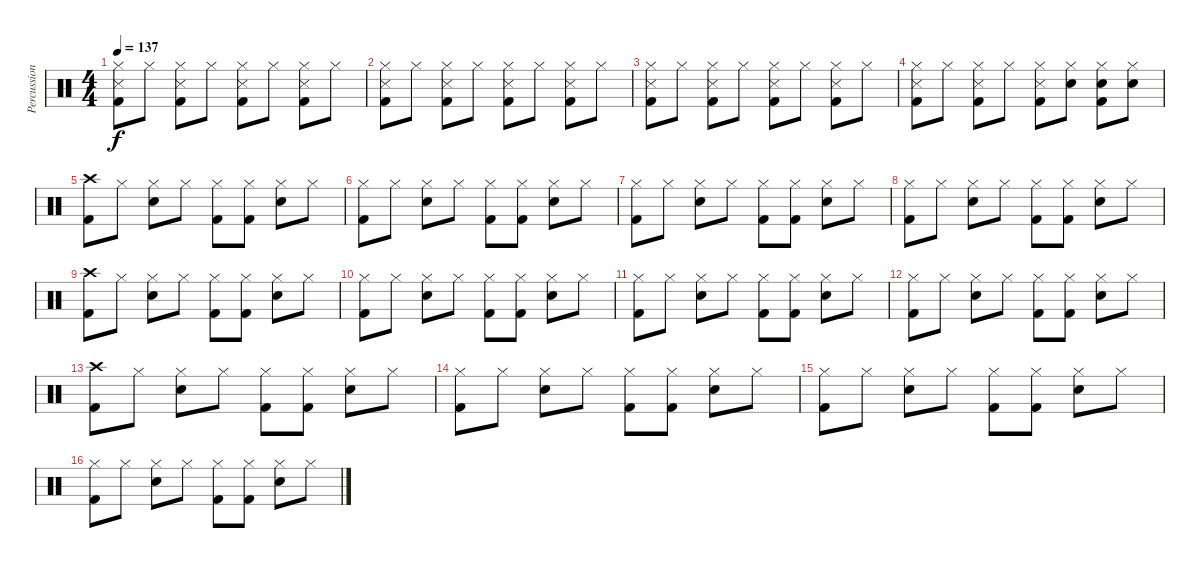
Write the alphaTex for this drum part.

\track ("Percussions" "Percussion") {instrument percussion}
\staff {score}
\articulation defaults
\ts (4 4)
\tempo 137
\clef neutral
\ks c
("Hi-Hat (closed)" "Snare (side stick) 3" "Kick (hit) 2").8{dy f} "Hi-Hat (closed)".8 ("Hi-Hat (closed)" "Snare (side stick) 3" "Kick (hit) 2").8 "Hi-Hat (closed)".8 ("Hi-Hat (closed)" "Snare (side stick) 3" "Kick (hit) 2").8 "Hi-Hat (closed)".8 ("Hi-Hat (closed)" "Snare (side stick) 3" "Kick (hit) 2").8 "Hi-Hat (closed)".8 |
("Hi-Hat (closed)" "Snare (side stick) 3" "Kick (hit) 2").8 "Hi-Hat (closed)".8 ("Hi-Hat (closed)" "Snare (side stick) 3" "Kick (hit) 2").8 "Hi-Hat (closed)".8 ("Hi-Hat (closed)" "Snare (side stick) 3" "Kick (hit) 2").8 "Hi-Hat (closed)".8 ("Hi-Hat (closed)" "Snare (side stick) 3" "Kick (hit) 2").8 "Hi-Hat (closed)".8 |
("Hi-Hat (closed)" "Snare (side stick) 3" "Kick (hit) 2").8 "Hi-Hat (closed)".8 ("Hi-Hat (closed)" "Snare (side stick) 3" "Kick (hit) 2").8 "Hi-Hat (closed)".8 ("Hi-Hat (closed)" "Snare (side stick) 3" "Kick (hit) 2").8 "Hi-Hat (closed)".8 ("Hi-Hat (closed)" "Snare (side stick) 3" "Kick (hit) 2").8 "Hi-Hat (closed)".8 |
("Hi-Hat (closed)" "Snare (side stick) 3" "Kick (hit) 2").8 "Hi-Hat (closed)".8 ("Hi-Hat (closed)" "Snare (side stick) 3" "Kick (hit) 2").8 "Hi-Hat (closed)".8 ("Hi-Hat (closed)" "Snare (side stick) 3" "Kick (hit) 2").8 ("Hi-Hat (closed)" "Snare (hit) 2").8 ("Hi-Hat (closed)" "Snare (hit) 2" "Kick (hit) 2").8 ("Hi-Hat (closed)" "Snare (hit) 2").8 |
("Crash high (hit)" "Kick (hit) 2").8 "Hi-Hat (closed)".8 ("Hi-Hat (closed)" "Snare (hit) 2").8 "Hi-Hat (closed)".8 ("Hi-Hat (closed)" "Kick (hit) 2").8 ("Hi-Hat (closed)" "Kick (hit) 2").8 ("Hi-Hat (closed)" "Snare (hit) 2").8 "Hi-Hat (closed)".8 |
("Hi-Hat (closed)" "Kick (hit) 2").8 "Hi-Hat (closed)".8 ("Hi-Hat (closed)" "Snare (hit) 2").8 "Hi-Hat (closed)".8 ("Hi-Hat (closed)" "Kick (hit) 2").8 ("Hi-Hat (closed)" "Kick (hit) 2").8 ("Hi-Hat (closed)" "Snare (hit) 2").8 "Hi-Hat (closed)".8 |
("Hi-Hat (closed)" "Kick (hit) 2").8 "Hi-Hat (closed)".8 ("Hi-Hat (closed)" "Snare (hit) 2").8 "Hi-Hat (closed)".8 ("Hi-Hat (closed)" "Kick (hit) 2").8 ("Hi-Hat (closed)" "Kick (hit) 2").8 ("Hi-Hat (closed)" "Snare (hit) 2").8 "Hi-Hat (closed)".8 |
("Hi-Hat (closed)" "Kick (hit) 2").8 "Hi-Hat (closed)".8 ("Hi-Hat (closed)" "Snare (hit) 2").8 "Hi-Hat (closed)".8 ("Hi-Hat (closed)" "Kick (hit) 2").8 ("Hi-Hat (closed)" "Kick (hit) 2").8 ("Hi-Hat (closed)" "Snare (hit) 2").8 "Hi-Hat (closed)".8 |
("Crash high (hit)" "Kick (hit) 2").8 "Hi-Hat (closed)".8 ("Hi-Hat (closed)" "Snare (hit) 2").8 "Hi-Hat (closed)".8 ("Hi-Hat (closed)" "Kick (hit) 2").8 ("Hi-Hat (closed)" "Kick (hit) 2").8 ("Hi-Hat (closed)" "Snare (hit) 2").8 "Hi-Hat (closed)".8 |
("Hi-Hat (closed)" "Kick (hit) 2").8 "Hi-Hat (closed)".8 ("Hi-Hat (closed)" "Snare (hit) 2").8 "Hi-Hat (closed)".8 ("Hi-Hat (closed)" "Kick (hit) 2").8 ("Hi-Hat (closed)" "Kick (hit) 2").8 ("Hi-Hat (closed)" "Snare (hit) 2").8 "Hi-Hat (closed)".8 |
("Hi-Hat (closed)" "Kick (hit) 2").8 "Hi-Hat (closed)".8 ("Hi-Hat (closed)" "Snare (hit) 2").8 "Hi-Hat (closed)".8 ("Hi-Hat (closed)" "Kick (hit) 2").8 ("Hi-Hat (closed)" "Kick (hit) 2").8 ("Hi-Hat (closed)" "Snare (hit) 2").8 "Hi-Hat (closed)".8 |
("Hi-Hat (closed)" "Kick (hit) 2").8 "Hi-Hat (closed)".8 ("Hi-Hat (closed)" "Snare (hit) 2").8 "Hi-Hat (closed)".8 ("Hi-Hat (closed)" "Kick (hit) 2").8 ("Hi-Hat (closed)" "Kick (hit) 2").8 ("Hi-Hat (closed)" "Snare (hit) 2").8 "Hi-Hat (closed)".8 |
("Crash high (hit)" "Kick (hit) 2").8 "Hi-Hat (closed)".8 ("Hi-Hat (closed)" "Snare (hit) 2").8 "Hi-Hat (closed)".8 ("Hi-Hat (closed)" "Kick (hit) 2").8 ("Hi-Hat (closed)" "Kick (hit) 2").8 ("Hi-Hat (closed)" "Snare (hit) 2").8 "Hi-Hat (closed)".8 |
("Hi-Hat (closed)" "Kick (hit) 2").8 "Hi-Hat (closed)".8 ("Hi-Hat (closed)" "Snare (hit) 2").8 "Hi-Hat (closed)".8 ("Hi-Hat (closed)" "Kick (hit) 2").8 ("Hi-Hat (closed)" "Kick (hit) 2").8 ("Hi-Hat (closed)" "Snare (hit) 2").8 "Hi-Hat (closed)".8 |
("Hi-Hat (closed)" "Kick (hit) 2").8 "Hi-Hat (closed)".8 ("Hi-Hat (closed)" "Snare (hit) 2").8 "Hi-Hat (closed)".8 ("Hi-Hat (closed)" "Kick (hit) 2").8 ("Hi-Hat (closed)" "Kick (hit) 2").8 ("Hi-Hat (closed)" "Snare (hit) 2").8 "Hi-Hat (closed)".8 |
("Hi-Hat (closed)" "Kick (hit) 2").8 "Hi-Hat (closed)".8 ("Hi-Hat (closed)" "Snare (hit) 2").8 "Hi-Hat (closed)".8 ("Hi-Hat (closed)" "Kick (hit) 2").8 ("Hi-Hat (closed)" "Kick (hit) 2").8 ("Hi-Hat (closed)" "Snare (hit) 2").8 "Hi-Hat (closed)".8
